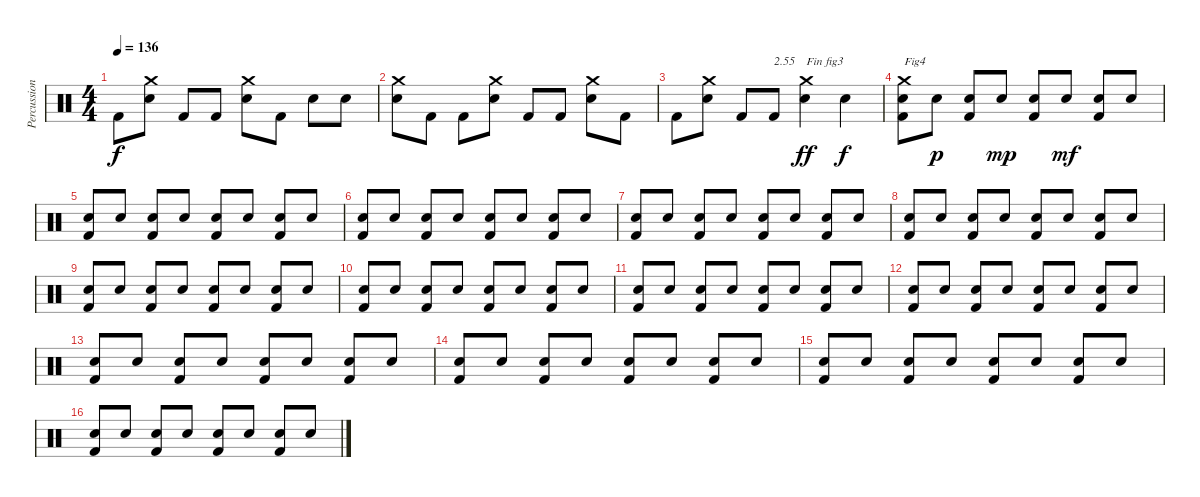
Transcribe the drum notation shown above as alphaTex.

\track ("Percussions" "Percussion") {instrument percussion}
\staff {score}
\articulation defaults
\ts (4 4)
\tempo 136
\clef neutral
\ks c "Kick (hit) 2".8{dy f}
("Electric Snare (hit)" "Crash medium (hit)").8 "Kick (hit) 2".8 "Kick (hit) 2".8 ("Electric Snare (hit)" "Crash medium (hit)").8 "Kick (hit) 2".8 "Electric Snare (hit)".8 "Electric Snare (hit)".8 |
("Electric Snare (hit)" "Crash medium (hit)").8 "Kick (hit) 2".8 "Kick (hit) 2".8 ("Electric Snare (hit)" "Crash medium (hit)").8 "Kick (hit) 2".8 "Kick (hit) 2".8 ("Electric Snare (hit)" "Crash medium (hit)").8 "Kick (hit) 2".8 |
"Kick (hit) 2".8 ("Electric Snare (hit)" "Crash medium (hit)").8 "Kick (hit) 2".8 "Kick (hit) 2".8{txt "2.55"} ("Electric Snare (hit)" "Crash medium (hit)").4{txt "Fin fig3" dy ff} "Electric Snare (hit)".4{dy f} |
("Kick (hit) 2" "Electric Snare (hit)" "Crash medium (hit)").8{txt "Fig4"} "Snare (hit) 2".8{dy p} ("Kick (hit) 2" "Snare (hit) 2").8 "Snare (hit) 2".8{dy mp} ("Kick (hit) 2" "Snare (hit) 2").8 "Snare (hit) 2".8{dy mf} ("Kick (hit) 2" "Snare (hit) 2").8 "Snare (hit) 2".8 |
("Kick (hit) 2" "Snare (hit) 2").8 "Snare (hit) 2".8 ("Kick (hit) 2" "Snare (hit) 2").8 "Snare (hit) 2".8 ("Kick (hit) 2" "Snare (hit) 2").8 "Snare (hit) 2".8 ("Kick (hit) 2" "Snare (hit) 2").8 "Snare (hit) 2".8 |
("Kick (hit) 2" "Snare (hit) 2").8 "Snare (hit) 2".8 ("Kick (hit) 2" "Snare (hit) 2").8 "Snare (hit) 2".8 ("Kick (hit) 2" "Snare (hit) 2").8 "Snare (hit) 2".8 ("Kick (hit) 2" "Snare (hit) 2").8 "Snare (hit) 2".8 |
("Kick (hit) 2" "Snare (hit) 2").8 "Snare (hit) 2".8 ("Kick (hit) 2" "Snare (hit) 2").8 "Snare (hit) 2".8 ("Kick (hit) 2" "Snare (hit) 2").8 "Snare (hit) 2".8 ("Kick (hit) 2" "Snare (hit) 2").8 "Snare (hit) 2".8 |
("Kick (hit) 2" "Snare (hit) 2").8 "Snare (hit) 2".8 ("Kick (hit) 2" "Snare (hit) 2").8 "Snare (hit) 2".8 ("Kick (hit) 2" "Snare (hit) 2").8 "Snare (hit) 2".8 ("Kick (hit) 2" "Snare (hit) 2").8 "Snare (hit) 2".8 |
("Kick (hit) 2" "Snare (hit) 2").8 "Snare (hit) 2".8 ("Kick (hit) 2" "Snare (hit) 2").8 "Snare (hit) 2".8 ("Kick (hit) 2" "Snare (hit) 2").8 "Snare (hit) 2".8 ("Kick (hit) 2" "Snare (hit) 2").8 "Snare (hit) 2".8 |
("Kick (hit) 2" "Snare (hit) 2").8 "Snare (hit) 2".8 ("Kick (hit) 2" "Snare (hit) 2").8 "Snare (hit) 2".8 ("Kick (hit) 2" "Snare (hit) 2").8 "Snare (hit) 2".8 ("Kick (hit) 2" "Snare (hit) 2").8 "Snare (hit) 2".8 |
("Kick (hit) 2" "Snare (hit) 2").8 "Snare (hit) 2".8 ("Kick (hit) 2" "Snare (hit) 2").8 "Snare (hit) 2".8 ("Kick (hit) 2" "Snare (hit) 2").8 "Snare (hit) 2".8 ("Kick (hit) 2" "Snare (hit) 2").8 "Snare (hit) 2".8 |
("Kick (hit) 2" "Snare (hit) 2").8 "Snare (hit) 2".8 ("Kick (hit) 2" "Snare (hit) 2").8 "Snare (hit) 2".8 ("Kick (hit) 2" "Snare (hit) 2").8 "Snare (hit) 2".8 ("Kick (hit) 2" "Snare (hit) 2").8 "Snare (hit) 2".8 |
("Kick (hit) 2" "Snare (hit) 2").8 "Snare (hit) 2".8 ("Kick (hit) 2" "Snare (hit) 2").8 "Snare (hit) 2".8 ("Kick (hit) 2" "Snare (hit) 2").8 "Snare (hit) 2".8 ("Kick (hit) 2" "Snare (hit) 2").8 "Snare (hit) 2".8 |
("Kick (hit) 2" "Snare (hit) 2").8 "Snare (hit) 2".8 ("Kick (hit) 2" "Snare (hit) 2").8 "Snare (hit) 2".8 ("Kick (hit) 2" "Snare (hit) 2").8 "Snare (hit) 2".8 ("Kick (hit) 2" "Snare (hit) 2").8 "Snare (hit) 2".8 |
("Kick (hit) 2" "Snare (hit) 2").8 "Snare (hit) 2".8 ("Kick (hit) 2" "Snare (hit) 2").8 "Snare (hit) 2".8 ("Kick (hit) 2" "Snare (hit) 2").8 "Snare (hit) 2".8 ("Kick (hit) 2" "Snare (hit) 2").8 "Snare (hit) 2".8 |
("Kick (hit) 2" "Snare (hit) 2").8 "Snare (hit) 2".8 ("Kick (hit) 2" "Snare (hit) 2").8 "Snare (hit) 2".8 ("Kick (hit) 2" "Snare (hit) 2").8 "Snare (hit) 2".8 ("Kick (hit) 2" "Snare (hit) 2").8 "Snare (hit) 2".8
